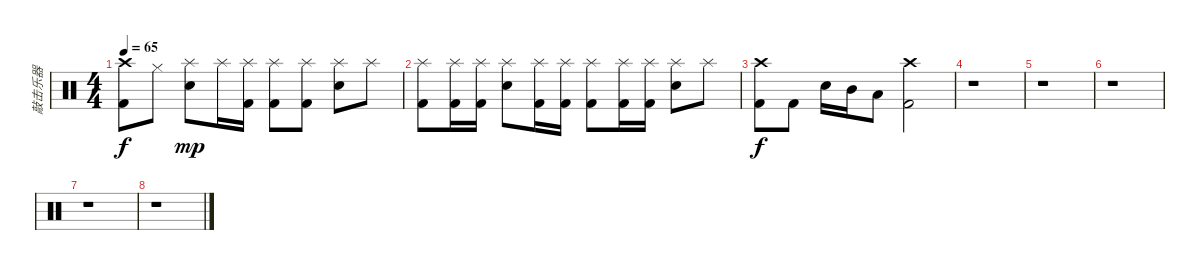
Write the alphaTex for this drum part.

\track ("敲击乐器" "敲击乐器") {instrument percussion}
\staff {score}
\articulation defaults
\ts (4 4)
\tempo 65
\clef neutral
\ks c
("Crash high (hit)" "Kick (hit) 2").8{dy f} "Hi-Hat (closed)".8 ("Splash (hit)" "Snare (hit) 2").8{dy mp} "Splash (hit)".16 ("Splash (hit)" "Kick (hit) 2").16 ("Splash (hit)" "Kick (hit) 2").8 ("Splash (hit)" "Kick (hit) 2").8 ("Splash (hit)" "Snare (hit) 2").8 "Splash (hit)".8 |
("Splash (hit)" "Kick (hit) 2").8 ("Splash (hit)" "Kick (hit) 2").16 ("Splash (hit)" "Kick (hit) 2").16 ("Splash (hit)" "Snare (hit) 2").8 ("Splash (hit)" "Kick (hit) 2").16 ("Splash (hit)" "Kick (hit) 2").16 ("Splash (hit)" "Kick (hit) 2").8 ("Splash (hit)" "Kick (hit) 2").16 ("Splash (hit)" "Kick (hit) 2").16 ("Splash (hit)" "Snare (hit) 2").8 "Splash (hit)".8 |
("Crash high (hit)" "Kick (hit) 2").8{dy f} "Kick (hit) 2".8 "Snare (hit) 2".16 "Mid Tom (hit)".16 "Low Tom (hit)".8 ("Crash high (hit)" "Kick (hit) 2").2 |
r.1 |
r.1 |
r.1 |
r.1 |
r.1
